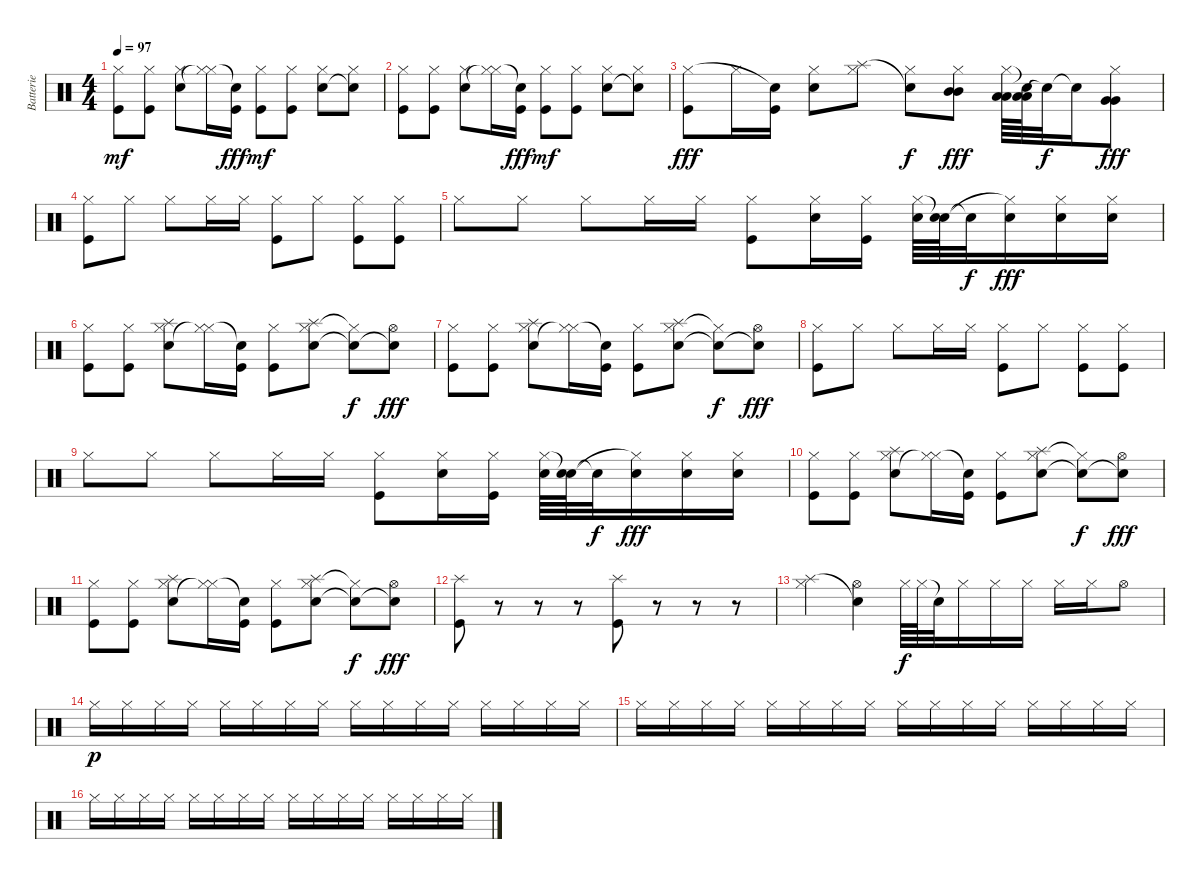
\track ("Batterie" "Batterie") {instrument percussion}
\staff {score}
\articulation defaults
\ts (4 4)
\tempo 97
\clef neutral
\ks c
("Kick (hit)" "Hi-Hat (closed)").8{dy mf} ("Kick (hit)" "Hi-Hat (closed)").8 ("Snare (hit) 2" "Hi-Hat (closed)").8 ("Hi-Hat (closed)"{t} "Hi-Hat (closed)").16 ("Kick (hit)" "Snare (hit)"{t}).16{dy fff} ("Kick (hit)" "Hi-Hat (closed)").8{dy mf} ("Kick (hit)" "Hi-Hat (closed)").8 ("Snare (hit) 2" "Hi-Hat (closed)").8 ("Snare (hit)"{t} "Hi-Hat (closed)").8 |
("Kick (hit)" "Hi-Hat (closed)").8 ("Kick (hit)" "Hi-Hat (closed)").8 ("Snare (hit) 2" "Hi-Hat (closed)").8 ("Hi-Hat (closed)"{t} "Hi-Hat (closed)").16 ("Kick (hit)" "Snare (hit)"{t}).16{dy fff} ("Kick (hit)" "Hi-Hat (closed)").8{dy mf} ("Kick (hit)" "Hi-Hat (closed)").8 ("Snare (hit) 2" "Hi-Hat (closed)").8 ("Snare (hit)"{t} "Hi-Hat (closed)").8 |
("Kick (hit)" "Hi-Hat (closed)").8{dy fff} "Hi-Hat (closed)".16 ("Kick (hit)" "Snare (hit)"{t}).16 ("Snare (hit) 2" "Hi-Hat (closed)").8 ("Splash (hit)" "Hi-Hat (closed)").8 ("Snare (hit)"{t} "Hi-Hat (closed)").8{dy f} ("Mid Tom (hit)" "Hi-Hat (closed)" "Mid Tom (hit)").8{dy fff} ("Low Tom (hit)" "Hi-Hat (closed)" "Low Tom (hit)").64 ("Low Tom (hit)" "Snare (hit)"{t} "Low Tom (hit)").64 "Snare (hit)"{t}.32{dy f} "Snare (hit)"{t}.16 ("Very Low Tom (hit)" "Hi-Hat (closed)" "Very Low Tom (hit)").8{dy fff} |
("Kick (hit)" "Hi-Hat (closed)").8 "Hi-Hat (closed)".8 "Hi-Hat (closed)".8 "Hi-Hat (closed)".16 "Hi-Hat (closed)".16 ("Kick (hit)" "Hi-Hat (closed)").8 "Hi-Hat (closed)".8 ("Kick (hit)" "Hi-Hat (closed)").8 ("Kick (hit)" "Hi-Hat (closed)").8 |
"Hi-Hat (closed)".8 "Hi-Hat (closed)".8 "Hi-Hat (closed)".8 "Hi-Hat (closed)".16 "Hi-Hat (closed)".16 ("Kick (hit)" "Hi-Hat (closed)").8 ("Snare (hit) 2" "Hi-Hat (closed)").16 ("Kick (hit)" "Hi-Hat (closed)").16 ("Snare (hit) 2" "Hi-Hat (closed)").64 ("Snare (hit) 2" "Snare (hit)"{t}).64 "Snare (hit)"{t}.32{dy f} ("Snare (hit) 2" "Hi-Hat (closed)"{t}).16{dy fff} ("Snare (hit) 2" "Hi-Hat (closed)").16 ("Snare (hit) 2" "Hi-Hat (closed)").16 |
("Kick (hit)" "Hi-Hat (closed)").8 ("Kick (hit)" "Hi-Hat (closed)").8 ("Snare (hit) 2" "Hi-Hat (closed)" "Splash (hit)").8 ("Hi-Hat (closed)"{t} "Hi-Hat (closed)").16 ("Kick (hit)" "Snare (hit)"{t}).16 ("Kick (hit)" "Hi-Hat (closed)").8 ("Snare (hit) 2" "Hi-Hat (closed)" "Splash (hit)").8 ("Snare (hit) 2"{t} "Hi-Hat (closed)"{t}).8{dy f} ("Snare (hit)"{t} "Hi-Hat (open)").8{dy fff} |
("Kick (hit)" "Hi-Hat (closed)").8 ("Kick (hit)" "Hi-Hat (closed)").8 ("Snare (hit) 2" "Hi-Hat (closed)" "Splash (hit)").8 ("Hi-Hat (closed)"{t} "Hi-Hat (closed)").16 ("Kick (hit)" "Snare (hit)"{t}).16 ("Kick (hit)" "Hi-Hat (closed)").8 ("Snare (hit) 2" "Hi-Hat (closed)" "Splash (hit)").8 ("Snare (hit) 2"{t} "Hi-Hat (closed)"{t}).8{dy f} ("Snare (hit)"{t} "Hi-Hat (open)").8{dy fff} |
("Kick (hit)" "Hi-Hat (closed)").8 "Hi-Hat (closed)".8 "Hi-Hat (closed)".8 "Hi-Hat (closed)".16 "Hi-Hat (closed)".16 ("Kick (hit)" "Hi-Hat (closed)").8 "Hi-Hat (closed)".8 ("Kick (hit)" "Hi-Hat (closed)").8 ("Kick (hit)" "Hi-Hat (closed)").8 |
"Hi-Hat (closed)".8 "Hi-Hat (closed)".8 "Hi-Hat (closed)".8 "Hi-Hat (closed)".16 "Hi-Hat (closed)".16 ("Kick (hit)" "Hi-Hat (closed)").8 ("Snare (hit) 2" "Hi-Hat (closed)").16 ("Kick (hit)" "Hi-Hat (closed)").16 ("Snare (hit) 2" "Hi-Hat (closed)").64 ("Snare (hit) 2" "Snare (hit)"{t}).64 "Snare (hit)"{t}.32{dy f} ("Snare (hit) 2" "Hi-Hat (closed)"{t}).16{dy fff} ("Snare (hit) 2" "Hi-Hat (closed)").16 ("Snare (hit) 2" "Hi-Hat (closed)").16 |
("Kick (hit)" "Hi-Hat (closed)").8 ("Kick (hit)" "Hi-Hat (closed)").8 ("Snare (hit) 2" "Hi-Hat (closed)" "Splash (hit)").8 ("Hi-Hat (closed)"{t} "Hi-Hat (closed)").16 ("Kick (hit)" "Snare (hit)"{t}).16 ("Kick (hit)" "Hi-Hat (closed)").8 ("Snare (hit) 2" "Hi-Hat (closed)" "Splash (hit)").8 ("Snare (hit) 2"{t} "Hi-Hat (closed)"{t}).8{dy f} ("Snare (hit)"{t} "Hi-Hat (open)").8{dy fff} |
("Kick (hit)" "Hi-Hat (closed)").8 ("Kick (hit)" "Hi-Hat (closed)").8 ("Snare (hit) 2" "Hi-Hat (closed)" "Splash (hit)").8 ("Hi-Hat (closed)"{t} "Hi-Hat (closed)").16 ("Kick (hit)" "Snare (hit)"{t}).16 ("Kick (hit)" "Hi-Hat (closed)").8 ("Snare (hit) 2" "Hi-Hat (closed)" "Splash (hit)").8 ("Snare (hit) 2"{t} "Hi-Hat (closed)"{t}).8{dy f} ("Snare (hit)"{t} "Hi-Hat (open)").8{dy fff} |
("Kick (hit)" "Splash (hit)").8 r.8 r.8 r.8 ("Kick (hit)" "Splash (hit)").8 r.8 r.8 r.8 |
("Splash (hit)" "Hi-Hat (closed)").4 ("Snare (hit)"{t} "Hi-Hat (open)").4 "Hi-Hat (closed)".64{dy f} "Hi-Hat (closed)".64 "Snare (hit)"{t}.32 "Hi-Hat (closed)".16 "Hi-Hat (closed)".16 "Hi-Hat (closed)".16 "Hi-Hat (closed)".16 "Hi-Hat (closed)".16 "Hi-Hat (open)".8 |
"Hi-Hat (closed)".16{dy p} "Hi-Hat (closed)".16 "Hi-Hat (closed)".16 "Hi-Hat (closed)".16 "Hi-Hat (closed)".16 "Hi-Hat (closed)".16 "Hi-Hat (closed)".16 "Hi-Hat (closed)".16 "Hi-Hat (closed)".16 "Hi-Hat (closed)".16 "Hi-Hat (closed)".16 "Hi-Hat (closed)".16 "Hi-Hat (closed)".16 "Hi-Hat (closed)".16 "Hi-Hat (closed)".16 "Hi-Hat (closed)".16 |
"Hi-Hat (closed)".16 "Hi-Hat (closed)".16 "Hi-Hat (closed)".16 "Hi-Hat (closed)".16 "Hi-Hat (closed)".16 "Hi-Hat (closed)".16 "Hi-Hat (closed)".16 "Hi-Hat (closed)".16 "Hi-Hat (closed)".16 "Hi-Hat (closed)".16 "Hi-Hat (closed)".16 "Hi-Hat (closed)".16 "Hi-Hat (closed)".16 "Hi-Hat (closed)".16 "Hi-Hat (closed)".16 "Hi-Hat (closed)".16 |
"Hi-Hat (closed)".16 "Hi-Hat (closed)".16 "Hi-Hat (closed)".16 "Hi-Hat (closed)".16 "Hi-Hat (closed)".16 "Hi-Hat (closed)".16 "Hi-Hat (closed)".16 "Hi-Hat (closed)".16 "Hi-Hat (closed)".16 "Hi-Hat (closed)".16 "Hi-Hat (closed)".16 "Hi-Hat (closed)".16 "Hi-Hat (closed)".16 "Hi-Hat (closed)".16 "Hi-Hat (closed)".16 "Hi-Hat (closed)".16
